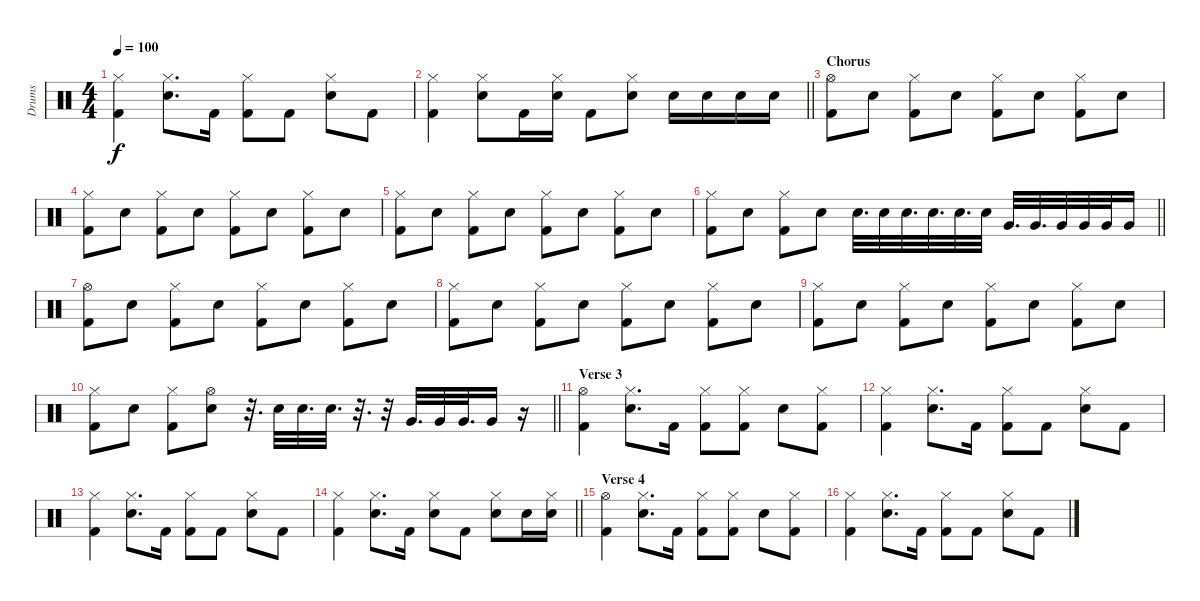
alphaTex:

\track ("Drums" "Drums") {instrument percussion}
\staff {score}
\articulation defaults
\ts (4 4)
\tempo 100
\clef neutral
\ks c
("Kick (hit) 2" "Hi-Hat (closed)").4{dy f} ("Electric Snare (hit)" "Hi-Hat (closed)").8{d} "Kick (hit) 2".16 ("Kick (hit) 2" "Hi-Hat (closed)").8 "Kick (hit) 2".8 ("Electric Snare (hit)" "Hi-Hat (closed)").8 "Kick (hit) 2".8 |
\barLineRight lightlight
("Kick (hit) 2" "Hi-Hat (closed)").4 ("Electric Snare (hit)" "Hi-Hat (closed)").8 "Kick (hit) 2".16 ("Electric Snare (hit)" "Hi-Hat (closed)").16 "Kick (hit) 2".8 ("Electric Snare (hit)" "Hi-Hat (closed)").8 "Electric Snare (hit)".16 "Electric Snare (hit)".16 "Electric Snare (hit)".16 "Electric Snare (hit)".16 |
\section ("" "Chorus")
("Kick (hit) 2" "Hi-Hat (open)").8 "Electric Snare (hit)".8 ("Kick (hit) 2" "Hi-Hat (closed)").8 "Electric Snare (hit)".8 ("Kick (hit) 2" "Hi-Hat (closed)").8 "Electric Snare (hit)".8 ("Kick (hit) 2" "Hi-Hat (closed)").8 "Electric Snare (hit)".8 |
("Kick (hit) 2" "Hi-Hat (closed)").8 "Electric Snare (hit)".8 ("Kick (hit) 2" "Hi-Hat (closed)").8 "Electric Snare (hit)".8 ("Kick (hit) 2" "Hi-Hat (closed)").8 "Electric Snare (hit)".8 ("Kick (hit) 2" "Hi-Hat (closed)").8 "Electric Snare (hit)".8 |
("Kick (hit) 2" "Hi-Hat (closed)").8 "Electric Snare (hit)".8 ("Kick (hit) 2" "Hi-Hat (closed)").8 "Electric Snare (hit)".8 ("Kick (hit) 2" "Hi-Hat (closed)").8 "Electric Snare (hit)".8 ("Kick (hit) 2" "Hi-Hat (closed)").8 "Electric Snare (hit)".8 |
\barLineRight lightlight
("Kick (hit) 2" "Hi-Hat (closed)").8 "Electric Snare (hit)".8 ("Kick (hit) 2" "Hi-Hat (closed)").8 "Electric Snare (hit)".8 "Electric Snare (hit)".32{d} "Electric Snare (hit)".32 "Electric Snare (hit)".32{d} "Electric Snare (hit)".32{d} "Electric Snare (hit)".32{d} "Electric Snare (hit)".32 "Very Low Tom (hit)".32{d} "Very Low Tom (hit)".32{d} "Very Low Tom (hit)".32 "Very Low Tom (hit)".32 "Very Low Tom (hit)".32 "Very Low Tom (hit)".16 |
("Kick (hit) 2" "Hi-Hat (open)").8 "Electric Snare (hit)".8 ("Kick (hit) 2" "Hi-Hat (closed)").8 "Electric Snare (hit)".8 ("Kick (hit) 2" "Hi-Hat (closed)").8 "Electric Snare (hit)".8 ("Kick (hit) 2" "Hi-Hat (closed)").8 "Electric Snare (hit)".8 |
("Kick (hit) 2" "Hi-Hat (closed)").8 "Electric Snare (hit)".8 ("Kick (hit) 2" "Hi-Hat (closed)").8 "Electric Snare (hit)".8 ("Kick (hit) 2" "Hi-Hat (closed)").8 "Electric Snare (hit)".8 ("Kick (hit) 2" "Hi-Hat (closed)").8 "Electric Snare (hit)".8 |
("Kick (hit) 2" "Hi-Hat (closed)").8 "Electric Snare (hit)".8 ("Kick (hit) 2" "Hi-Hat (closed)").8 "Electric Snare (hit)".8 ("Kick (hit) 2" "Hi-Hat (closed)").8 "Electric Snare (hit)".8 ("Kick (hit) 2" "Hi-Hat (closed)").8 "Electric Snare (hit)".8 |
\barLineRight lightlight
("Kick (hit) 2" "Hi-Hat (closed)").8 "Electric Snare (hit)".8 ("Kick (hit) 2" "Hi-Hat (closed)").8 ("Electric Snare (hit)" "Hi-Hat (open)").8 r.32{d} "Electric Snare (hit)".32 "Electric Snare (hit)".32{d} "Electric Snare (hit)".32{d} r.32{d} r.32 "Very Low Tom (hit)".32{d} "Very Low Tom (hit)".32 "Very Low Tom (hit)".32{d} "Very Low Tom (hit)".16 r.16 |
\section ("" "Verse 3")
("Kick (hit) 2" "Hi-Hat (open)").4 ("Electric Snare (hit)" "Hi-Hat (closed)").8{d} "Kick (hit) 2".16 ("Kick (hit) 2" "Hi-Hat (closed)").8 ("Kick (hit) 2" "Hi-Hat (closed)").8 "Electric Snare (hit)".8 ("Kick (hit) 2" "Hi-Hat (closed)").8 |
("Kick (hit) 2" "Hi-Hat (closed)").4 ("Electric Snare (hit)" "Hi-Hat (closed)").8{d} "Kick (hit) 2".16 ("Kick (hit) 2" "Hi-Hat (closed)").8 "Kick (hit) 2".8 ("Electric Snare (hit)" "Hi-Hat (closed)").8 "Kick (hit) 2".8 |
("Kick (hit) 2" "Hi-Hat (closed)").4 ("Electric Snare (hit)" "Hi-Hat (closed)").8{d} "Kick (hit) 2".16 ("Kick (hit) 2" "Hi-Hat (closed)").8 "Kick (hit) 2".8 ("Electric Snare (hit)" "Hi-Hat (closed)").8 "Kick (hit) 2".8 |
\barLineRight lightlight
("Kick (hit) 2" "Hi-Hat (closed)").4 ("Electric Snare (hit)" "Hi-Hat (closed)").8{d} "Kick (hit) 2".16 ("Electric Snare (hit)" "Hi-Hat (closed)").8 "Kick (hit) 2".8 ("Electric Snare (hit)" "Hi-Hat (closed)").8 "Electric Snare (hit)".16 ("Electric Snare (hit)" "Hi-Hat (closed)").16 |
\section ("" "Verse 4")
("Kick (hit) 2" "Hi-Hat (open)").4 ("Electric Snare (hit)" "Hi-Hat (closed)").8{d} "Kick (hit) 2".16 ("Kick (hit) 2" "Hi-Hat (closed)").8 ("Kick (hit) 2" "Hi-Hat (closed)").8 "Electric Snare (hit)".8 ("Kick (hit) 2" "Hi-Hat (closed)").8 |
("Kick (hit) 2" "Hi-Hat (closed)").4 ("Electric Snare (hit)" "Hi-Hat (closed)").8{d} "Kick (hit) 2".16 ("Kick (hit) 2" "Hi-Hat (closed)").8 "Kick (hit) 2".8 ("Electric Snare (hit)" "Hi-Hat (closed)").8 "Kick (hit) 2".8
